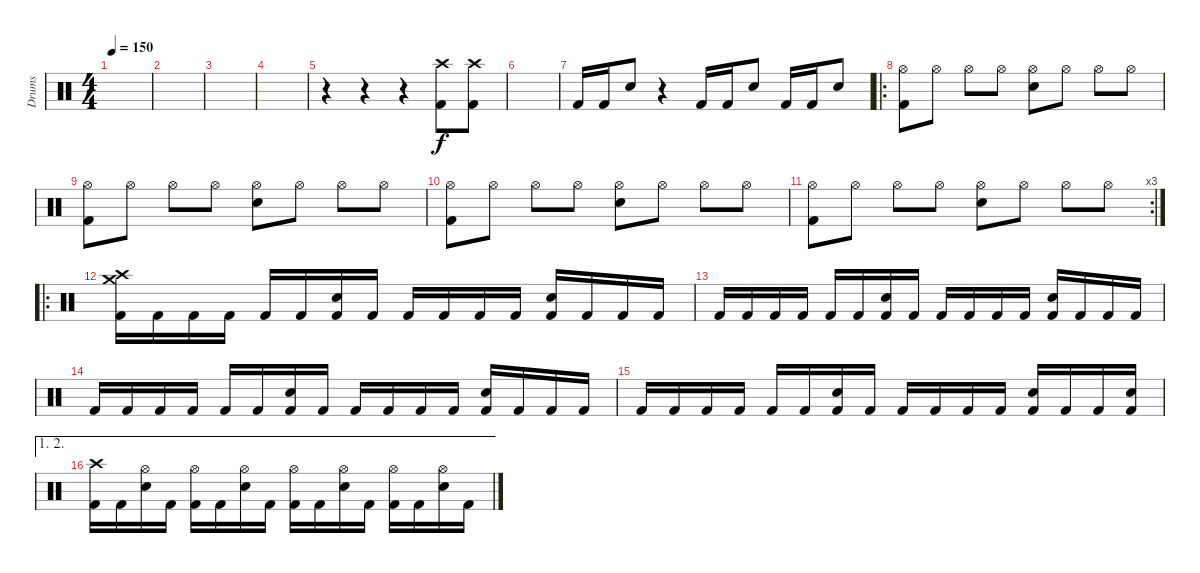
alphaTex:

\track ("Drums" "Drums") {instrument percussion}
\staff {score}
\articulation defaults
\ts (4 4)
\tempo 150
\clef neutral
\ks c
|
|
|
|
r.4 r.4 r.4 ("Crash high (hit)" "Kick (hit) 2").8 ("Crash high (hit)" "Kick (hit) 2").8 |
|
"Kick (hit) 2".16 "Kick (hit) 2".16 "Electric Snare (hit)".8 r.4 "Kick (hit) 2".16 "Kick (hit) 2".16 "Electric Snare (hit)".8 "Kick (hit) 2".16 "Kick (hit) 2".16 "Electric Snare (hit)".8 |
\ro
("Hi-Hat (open)" "Kick (hit) 2").8 "Hi-Hat (open)".8 "Hi-Hat (open)".8 "Hi-Hat (open)".8 ("Hi-Hat (open)" "Electric Snare (hit)").8 "Hi-Hat (open)".8 "Hi-Hat (open)".8 "Hi-Hat (open)".8 |
("Hi-Hat (open)" "Kick (hit) 2").8 "Hi-Hat (open)".8 "Hi-Hat (open)".8 "Hi-Hat (open)".8 ("Hi-Hat (open)" "Electric Snare (hit)").8 "Hi-Hat (open)".8 "Hi-Hat (open)".8 "Hi-Hat (open)".8 |
("Hi-Hat (open)" "Kick (hit) 2").8 "Hi-Hat (open)".8 "Hi-Hat (open)".8 "Hi-Hat (open)".8 ("Hi-Hat (open)" "Electric Snare (hit)").8 "Hi-Hat (open)".8 "Hi-Hat (open)".8 "Hi-Hat (open)".8 |
\rc 3
("Hi-Hat (open)" "Kick (hit) 2").8 "Hi-Hat (open)".8 "Hi-Hat (open)".8 "Hi-Hat (open)".8 ("Hi-Hat (open)" "Electric Snare (hit)").8 "Hi-Hat (open)".8 "Hi-Hat (open)".8 "Hi-Hat (open)".8 |
\ro
("Crash medium (hit)" "Crash high (hit)" "Kick (hit) 2").16 "Kick (hit) 2".16 "Kick (hit) 2".16 "Kick (hit) 2".16 "Kick (hit) 2".16 "Kick (hit) 2".16 ("Electric Snare (hit)" "Kick (hit) 2").16 "Kick (hit) 2".16 "Kick (hit) 2".16 "Kick (hit) 2".16 "Kick (hit) 2".16 "Kick (hit) 2".16 ("Electric Snare (hit)" "Kick (hit) 2").16 "Kick (hit) 2".16 "Kick (hit) 2".16 "Kick (hit) 2".16 |
"Kick (hit) 2".16 "Kick (hit) 2".16 "Kick (hit) 2".16 "Kick (hit) 2".16 "Kick (hit) 2".16 "Kick (hit) 2".16 ("Electric Snare (hit)" "Kick (hit) 2").16 "Kick (hit) 2".16 "Kick (hit) 2".16 "Kick (hit) 2".16 "Kick (hit) 2".16 "Kick (hit) 2".16 ("Electric Snare (hit)" "Kick (hit) 2").16 "Kick (hit) 2".16 "Kick (hit) 2".16 "Kick (hit) 2".16 |
"Kick (hit) 2".16 "Kick (hit) 2".16 "Kick (hit) 2".16 "Kick (hit) 2".16 "Kick (hit) 2".16 "Kick (hit) 2".16 ("Electric Snare (hit)" "Kick (hit) 2").16 "Kick (hit) 2".16 "Kick (hit) 2".16 "Kick (hit) 2".16 "Kick (hit) 2".16 "Kick (hit) 2".16 ("Electric Snare (hit)" "Kick (hit) 2").16 "Kick (hit) 2".16 "Kick (hit) 2".16 "Kick (hit) 2".16 |
"Kick (hit) 2".16 "Kick (hit) 2".16 "Kick (hit) 2".16 "Kick (hit) 2".16 "Kick (hit) 2".16 "Kick (hit) 2".16 ("Electric Snare (hit)" "Kick (hit) 2").16 "Kick (hit) 2".16 "Kick (hit) 2".16 "Kick (hit) 2".16 "Kick (hit) 2".16 "Kick (hit) 2".16 ("Electric Snare (hit)" "Kick (hit) 2").16 "Kick (hit) 2".16 "Kick (hit) 2".16 ("Electric Snare (hit)" "Kick (hit) 2").16 |
\ae (1 2)
("Crash high (hit)" "Kick (hit) 2").16 "Kick (hit) 2".16 ("Hi-Hat (open)" "Electric Snare (hit)").16 "Kick (hit) 2".16 ("Hi-Hat (open)" "Kick (hit) 2").16 "Kick (hit) 2".16 ("Hi-Hat (open)" "Electric Snare (hit)").16 "Kick (hit) 2".16 ("Hi-Hat (open)" "Kick (hit) 2").16 "Kick (hit) 2".16 ("Hi-Hat (open)" "Electric Snare (hit)").16 "Kick (hit) 2".16 ("Hi-Hat (open)" "Kick (hit) 2").16 "Kick (hit) 2".16 ("Hi-Hat (open)" "Electric Snare (hit)").16 "Kick (hit) 2".16
